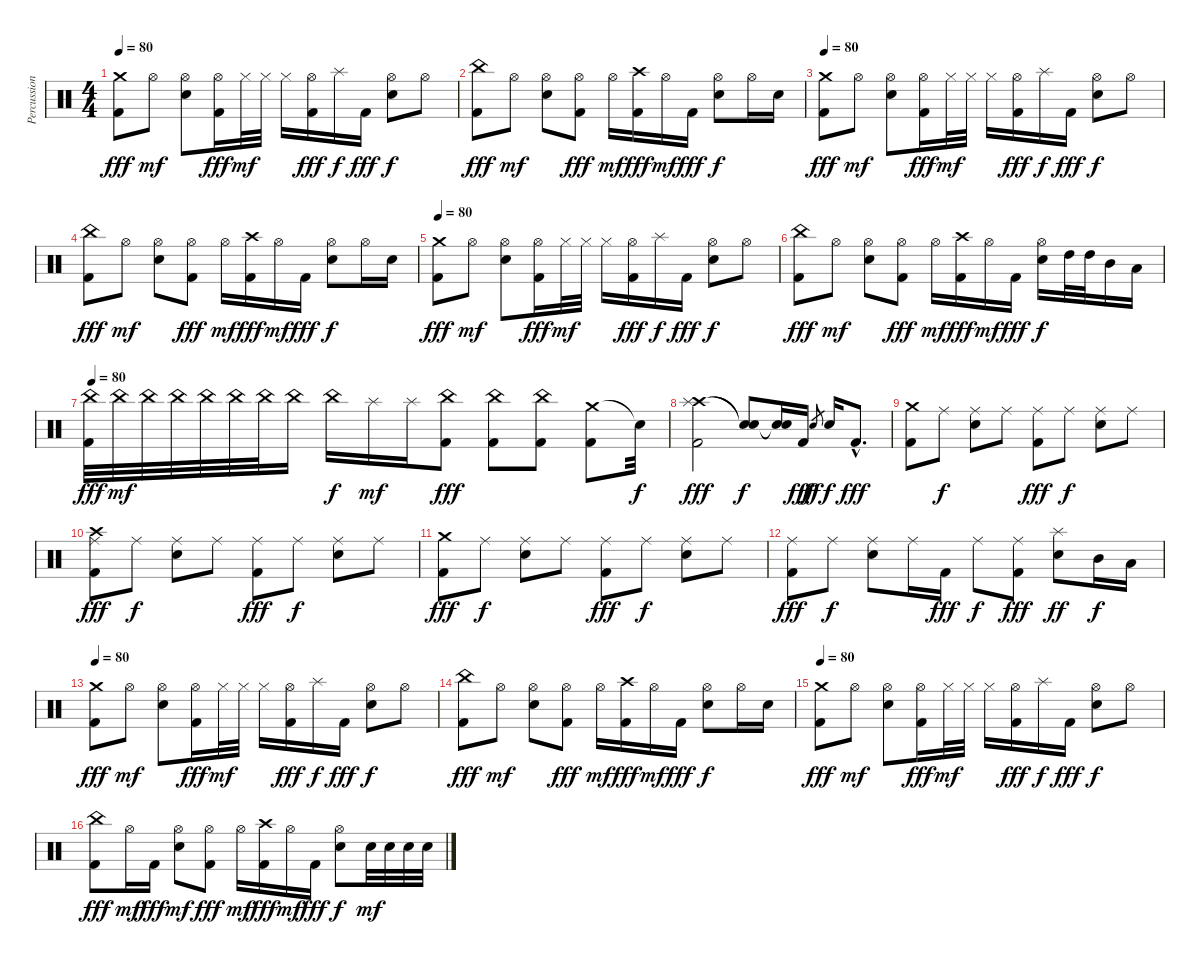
\track ("Percussion" "Percussion") {instrument percussion}
\staff {score}
\articulation defaults
\ts (4 4)
\tempo 80
\clef neutral
\ks c
("Crash medium (hit)" "Kick (hit) 2").8{dy fff} "Hi-Hat (open)".8{dy mf} ("Hi-Hat (open)" "Electric Snare (hit)").8 ("Hi-Hat (open)" "Kick (hit) 2").16{dy fff} "Hi-Hat (closed)".32{dy mf} "Hi-Hat (closed)".32 "Hi-Hat (closed)".16 ("Hi-Hat (open)" "Kick (hit) 2").16{dy fff} "Splash (hit)".16{dy f} "Kick (hit) 2".16{dy fff} ("Hi-Hat (open)" "Electric Snare (hit)").8{dy f} "Hi-Hat (open)".8 |
("China (hit)" "Kick (hit) 2").8{dy fff} "Hi-Hat (open)".8{dy mf} ("Hi-Hat (open)" "Electric Snare (hit)").8 ("Hi-Hat (open)" "Kick (hit) 2").8{dy fff} "Hi-Hat (open)".16{dy mf} ("Crash high (hit)" "Kick (hit) 2").16{dy fff} "Hi-Hat (open)".16{dy mf} "Kick (hit) 2".16{dy fff} ("Hi-Hat (open)" "Electric Snare (hit)").8{dy f} "Hi-Hat (open)".16 "Electric Snare (hit)".16 |
\tempo 80
("Crash medium (hit)" "Kick (hit) 2").8{dy fff} "Hi-Hat (open)".8{dy mf} ("Hi-Hat (open)" "Electric Snare (hit)").8 ("Hi-Hat (open)" "Kick (hit) 2").16{dy fff} "Hi-Hat (closed)".32{dy mf} "Hi-Hat (closed)".32 "Hi-Hat (closed)".16 ("Hi-Hat (open)" "Kick (hit) 2").16{dy fff} "Splash (hit)".16{dy f} "Kick (hit) 2".16{dy fff} ("Hi-Hat (open)" "Electric Snare (hit)").8{dy f} "Hi-Hat (open)".8 |
("China (hit)" "Kick (hit) 2").8{dy fff} "Hi-Hat (open)".8{dy mf} ("Hi-Hat (open)" "Electric Snare (hit)").8 ("Hi-Hat (open)" "Kick (hit) 2").8{dy fff} "Hi-Hat (open)".16{dy mf} ("Crash high (hit)" "Kick (hit) 2").16{dy fff} "Hi-Hat (open)".16{dy mf} "Kick (hit) 2".16{dy fff} ("Hi-Hat (open)" "Electric Snare (hit)").8{dy f} "Hi-Hat (open)".16 "Electric Snare (hit)".16 |
\tempo 80
("Crash medium (hit)" "Kick (hit) 2").8{dy fff} "Hi-Hat (open)".8{dy mf} ("Hi-Hat (open)" "Electric Snare (hit)").8 ("Hi-Hat (open)" "Kick (hit) 2").16{dy fff} "Hi-Hat (closed)".32{dy mf} "Hi-Hat (closed)".32 "Hi-Hat (closed)".16 ("Hi-Hat (open)" "Kick (hit) 2").16{dy fff} "Splash (hit)".16{dy f} "Kick (hit) 2".16{dy fff} ("Hi-Hat (open)" "Electric Snare (hit)").8{dy f} "Hi-Hat (open)".8 |
("China (hit)" "Kick (hit) 2").8{dy fff} "Hi-Hat (open)".8{dy mf} ("Hi-Hat (open)" "Electric Snare (hit)").8 ("Hi-Hat (open)" "Kick (hit) 2").8{dy fff} "Hi-Hat (open)".16{dy mf} ("Crash high (hit)" "Kick (hit) 2").16{dy fff} "Hi-Hat (open)".16{dy mf} "Kick (hit) 2".16{dy fff} ("Hi-Hat (open)" "Electric Snare (hit)").16{dy f} "High Tom (hit)".32 "High Tom (hit)".32 "Mid Tom (hit)".16 "Low Tom (hit)".16 |
\tempo 80
("China (hit)" "Kick (hit) 2").32{dy fff} "China (hit)".32{dy mf} "China (hit)".32 "China (hit)".32 "China (hit)".32 "China (hit)".32 "China (hit)".32 "China (hit)".16 "China (hit)".16{dy f} "Splash (hit)".16{dy mf} "Splash (hit)".16 ("China (hit)" "Kick (hit) 2").8{dy fff} ("China (hit)" "Kick (hit) 2").8 ("China (hit)" "Kick (hit) 2").8 ("Crash medium (hit)" "Kick (hit) 2").8 "Snare (hit)"{t}.32{dy f} |
("Crash high (hit)" "Splash (hit)" "Kick (hit) 2").2{dy fff} ("Snare (hit)"{t} "Snare (hit)"{t}).8{dy f} ("Snare (hit)"{t} "Snare (hit)"{t}).16 "Kick (hit) 2".16{dy fff} "Electric Snare (hit)".8{gr dy ff} "Electric Snare (hit)".16{dy f} "Kick (hit) 2"{hac}.8{d dy fff} |
("Crash medium (hit)" "Kick (hit) 2").8 "Ride (middle)".8{dy f} ("Ride (middle)" "Electric Snare (hit)").8 "Ride (middle)".8 ("Ride (middle)" "Kick (hit) 2").8{dy fff} "Ride (middle)".8{dy f} ("Ride (middle)" "Electric Snare (hit)").8 "Ride (middle)".8 |
("Crash high (hit)" "Ride (middle)" "Kick (hit) 2").8{dy fff} "Ride (middle)".8{dy f} ("Ride (middle)" "Electric Snare (hit)").8 "Ride (middle)".8 ("Ride (middle)" "Kick (hit) 2").8{dy fff} "Ride (middle)".8{dy f} ("Ride (middle)" "Electric Snare (hit)").8 "Ride (middle)".8 |
("Crash medium (hit)" "Kick (hit) 2").8{dy fff} "Ride (middle)".8{dy f} ("Ride (middle)" "Electric Snare (hit)").8 "Ride (middle)".8 ("Ride (middle)" "Kick (hit) 2").8{dy fff} "Ride (middle)".8{dy f} ("Ride (middle)" "Electric Snare (hit)").8 "Ride (middle)".8 |
("Ride (middle)" "Kick (hit) 2").8{dy fff} "Ride (middle)".8{dy f} ("Ride (middle)" "Electric Snare (hit)").8 "Ride (middle)".16 "Kick (hit) 2".16{dy fff} "Ride (middle)".8{dy f} ("Ride (middle)" "Kick (hit) 2").8{dy fff} ("Splash (hit)" "Electric Snare (hit)").8{dy ff} "Mid Tom (hit)".16{dy f} "Low Tom (hit)".16 |
\tempo 80
("Crash medium (hit)" "Kick (hit) 2").8{dy fff} "Hi-Hat (open)".8{dy mf} ("Hi-Hat (open)" "Electric Snare (hit)").8 ("Hi-Hat (open)" "Kick (hit) 2").16{dy fff} "Hi-Hat (closed)".32{dy mf} "Hi-Hat (closed)".32 "Hi-Hat (closed)".16 ("Hi-Hat (open)" "Kick (hit) 2").16{dy fff} "Splash (hit)".16{dy f} "Kick (hit) 2".16{dy fff} ("Hi-Hat (open)" "Electric Snare (hit)").8{dy f} "Hi-Hat (open)".8 |
("China (hit)" "Kick (hit) 2").8{dy fff} "Hi-Hat (open)".8{dy mf} ("Hi-Hat (open)" "Electric Snare (hit)").8 ("Hi-Hat (open)" "Kick (hit) 2").8{dy fff} "Hi-Hat (open)".16{dy mf} ("Crash high (hit)" "Kick (hit) 2").16{dy fff} "Hi-Hat (open)".16{dy mf} "Kick (hit) 2".16{dy fff} ("Hi-Hat (open)" "Electric Snare (hit)").8{dy f} "Hi-Hat (open)".16 "Electric Snare (hit)".16 |
\tempo 80
("Crash medium (hit)" "Kick (hit) 2").8{dy fff} "Hi-Hat (open)".8{dy mf} ("Hi-Hat (open)" "Electric Snare (hit)").8 ("Hi-Hat (open)" "Kick (hit) 2").16{dy fff} "Hi-Hat (closed)".32{dy mf} "Hi-Hat (closed)".32 "Hi-Hat (closed)".16 ("Hi-Hat (open)" "Kick (hit) 2").16{dy fff} "Splash (hit)".16{dy f} "Kick (hit) 2".16{dy fff} ("Hi-Hat (open)" "Electric Snare (hit)").8{dy f} "Hi-Hat (open)".8 |
("China (hit)" "Kick (hit) 2").8{dy fff} "Hi-Hat (open)".16{dy mf} "Kick (hit) 2".16{dy fff} ("Hi-Hat (open)" "Electric Snare (hit)").8{dy mf} ("Hi-Hat (open)" "Kick (hit) 2").8{dy fff} "Hi-Hat (open)".16{dy mf} ("Crash high (hit)" "Kick (hit) 2").16{dy fff} "Hi-Hat (open)".16{dy mf} "Kick (hit) 2".16{dy fff} ("Hi-Hat (open)" "Electric Snare (hit)").8{dy f} "Electric Snare (hit)".32{dy mf} "Electric Snare (hit)".32 "Electric Snare (hit)".32 "Electric Snare (hit)".32
